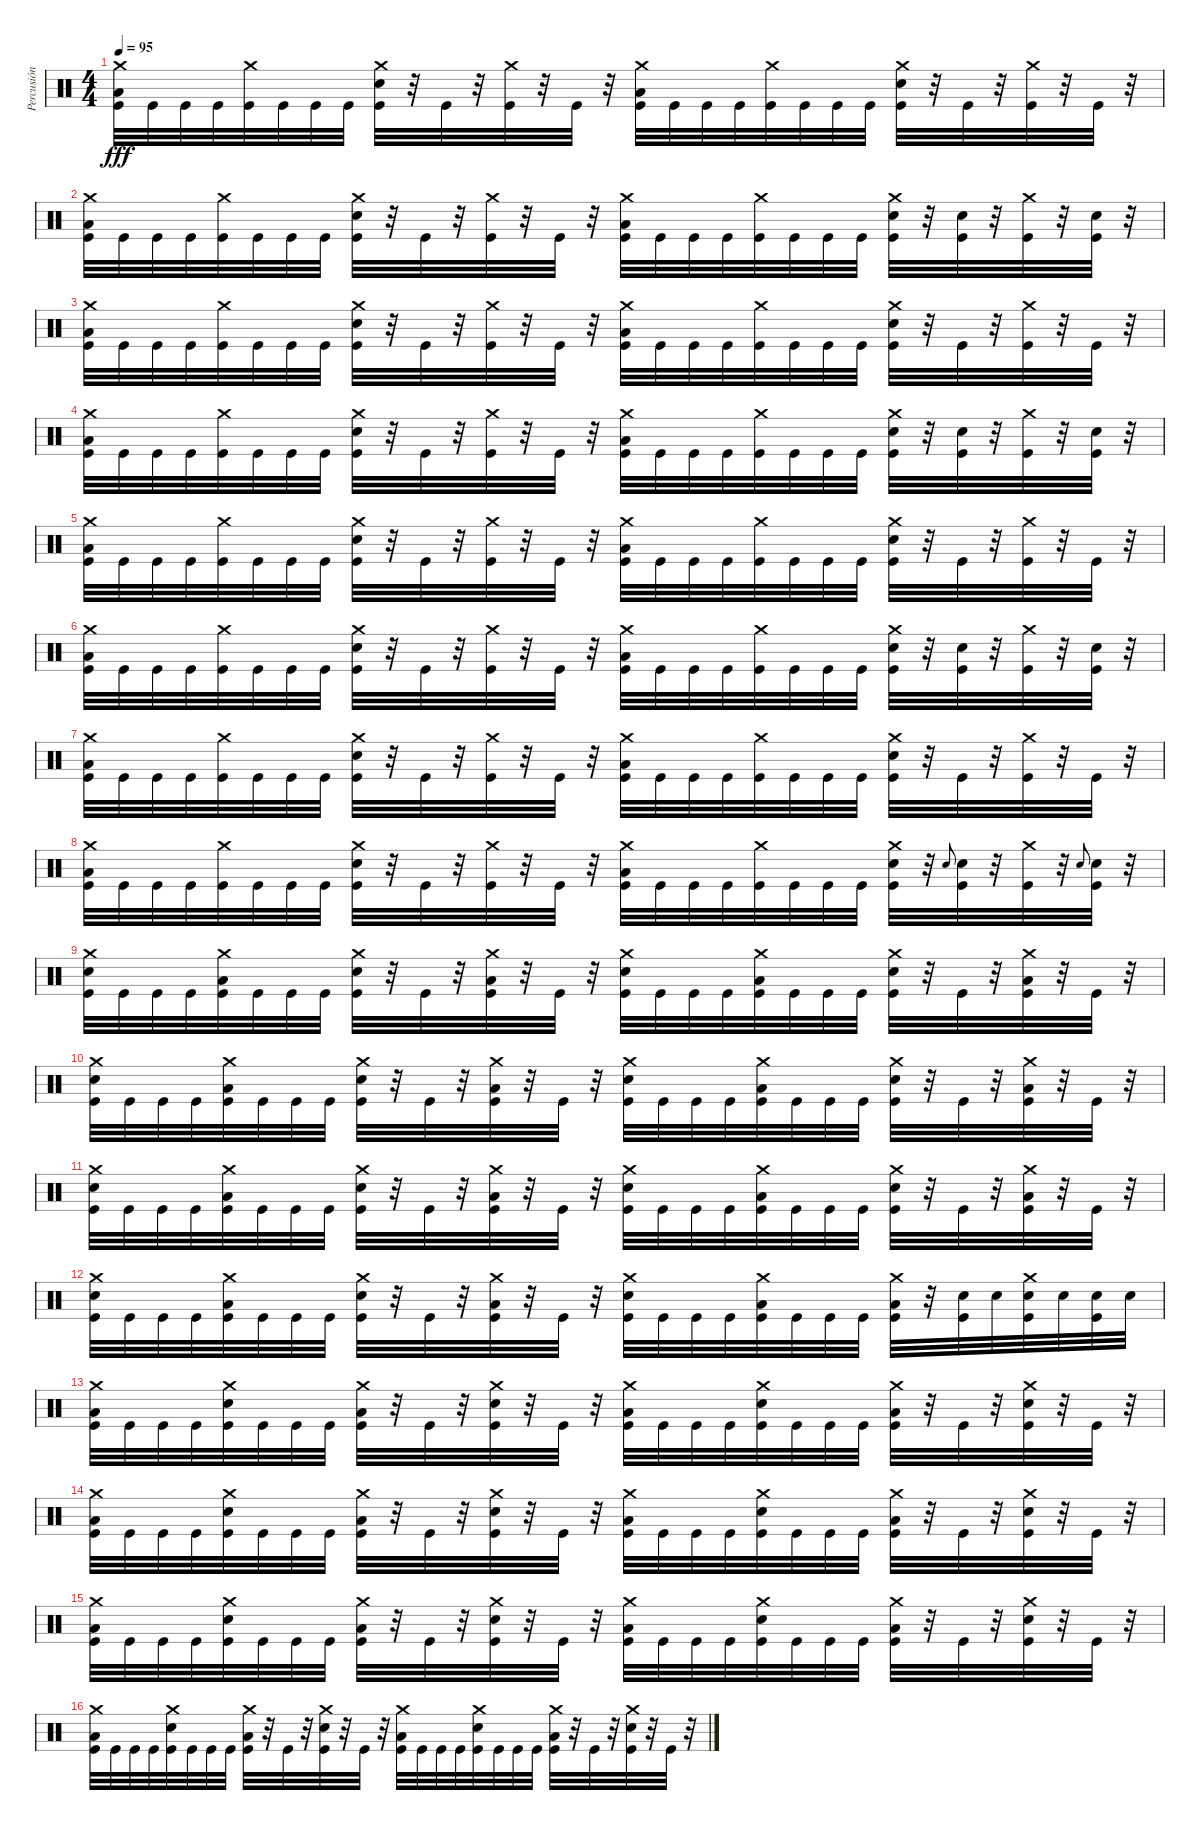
\track ("Percusión" "Percusión") {instrument percussion}
\staff {score}
\articulation defaults
\ts (4 4)
\tempo 95
\clef neutral
\ks c
("Crash medium (hit)" "Low Floor Tom (hit)" "Kick (hit)").32{dy fff} "Kick (hit)".32 "Kick (hit)".32 "Kick (hit)".32 ("Crash medium (hit)" "Kick (hit)").32 "Kick (hit)".32 "Kick (hit)".32 "Kick (hit)".32 ("Crash medium (hit)" "Snare (hit) 2" "Kick (hit)").32 r.32 "Kick (hit)".32 r.32 ("Crash medium (hit)" "Kick (hit)").32 r.32 "Kick (hit)".32 r.32 ("Crash medium (hit)" "Low Floor Tom (hit)" "Kick (hit)").32 "Kick (hit)".32 "Kick (hit)".32 "Kick (hit)".32 ("Crash medium (hit)" "Kick (hit)").32 "Kick (hit)".32 "Kick (hit)".32 "Kick (hit)".32 ("Crash medium (hit)" "Snare (hit) 2" "Kick (hit)").32 r.32 "Kick (hit)".32 r.32 ("Crash medium (hit)" "Kick (hit)").32 r.32 "Kick (hit)".32 r.32 |
("Crash medium (hit)" "Low Floor Tom (hit)" "Kick (hit)").32 "Kick (hit)".32 "Kick (hit)".32 "Kick (hit)".32 ("Crash medium (hit)" "Kick (hit)").32 "Kick (hit)".32 "Kick (hit)".32 "Kick (hit)".32 ("Crash medium (hit)" "Snare (hit) 2" "Kick (hit)").32 r.32 "Kick (hit)".32 r.32 ("Crash medium (hit)" "Kick (hit)").32 r.32 "Kick (hit)".32 r.32 ("Crash medium (hit)" "Low Floor Tom (hit)" "Kick (hit)").32 "Kick (hit)".32 "Kick (hit)".32 "Kick (hit)".32 ("Crash medium (hit)" "Kick (hit)").32 "Kick (hit)".32 "Kick (hit)".32 "Kick (hit)".32 ("Crash medium (hit)" "Snare (hit) 2" "Kick (hit)").32 r.32 ("Snare (hit) 2" "Kick (hit)").32 r.32 ("Crash medium (hit)" "Kick (hit)").32 r.32 ("Snare (hit) 2" "Kick (hit)").32 r.32 |
("Crash medium (hit)" "Low Floor Tom (hit)" "Kick (hit)").32 "Kick (hit)".32 "Kick (hit)".32 "Kick (hit)".32 ("Crash medium (hit)" "Kick (hit)").32 "Kick (hit)".32 "Kick (hit)".32 "Kick (hit)".32 ("Crash medium (hit)" "Snare (hit) 2" "Kick (hit)").32 r.32 "Kick (hit)".32 r.32 ("Crash medium (hit)" "Kick (hit)").32 r.32 "Kick (hit)".32 r.32 ("Crash medium (hit)" "Low Floor Tom (hit)" "Kick (hit)").32 "Kick (hit)".32 "Kick (hit)".32 "Kick (hit)".32 ("Crash medium (hit)" "Kick (hit)").32 "Kick (hit)".32 "Kick (hit)".32 "Kick (hit)".32 ("Crash medium (hit)" "Snare (hit) 2" "Kick (hit)").32 r.32 "Kick (hit)".32 r.32 ("Crash medium (hit)" "Kick (hit)").32 r.32 "Kick (hit)".32 r.32 |
("Crash medium (hit)" "Low Floor Tom (hit)" "Kick (hit)").32 "Kick (hit)".32 "Kick (hit)".32 "Kick (hit)".32 ("Crash medium (hit)" "Kick (hit)").32 "Kick (hit)".32 "Kick (hit)".32 "Kick (hit)".32 ("Crash medium (hit)" "Snare (hit) 2" "Kick (hit)").32 r.32 "Kick (hit)".32 r.32 ("Crash medium (hit)" "Kick (hit)").32 r.32 "Kick (hit)".32 r.32 ("Crash medium (hit)" "Low Floor Tom (hit)" "Kick (hit)").32 "Kick (hit)".32 "Kick (hit)".32 "Kick (hit)".32 ("Crash medium (hit)" "Kick (hit)").32 "Kick (hit)".32 "Kick (hit)".32 "Kick (hit)".32 ("Crash medium (hit)" "Snare (hit) 2" "Kick (hit)").32 r.32 ("Snare (hit) 2" "Kick (hit)").32 r.32 ("Crash medium (hit)" "Kick (hit)").32 r.32 ("Snare (hit) 2" "Kick (hit)").32 r.32 |
("Crash medium (hit)" "Low Floor Tom (hit)" "Kick (hit)").32 "Kick (hit)".32 "Kick (hit)".32 "Kick (hit)".32 ("Crash medium (hit)" "Kick (hit)").32 "Kick (hit)".32 "Kick (hit)".32 "Kick (hit)".32 ("Crash medium (hit)" "Snare (hit) 2" "Kick (hit)").32 r.32 "Kick (hit)".32 r.32 ("Crash medium (hit)" "Kick (hit)").32 r.32 "Kick (hit)".32 r.32 ("Crash medium (hit)" "Low Floor Tom (hit)" "Kick (hit)").32 "Kick (hit)".32 "Kick (hit)".32 "Kick (hit)".32 ("Crash medium (hit)" "Kick (hit)").32 "Kick (hit)".32 "Kick (hit)".32 "Kick (hit)".32 ("Crash medium (hit)" "Snare (hit) 2" "Kick (hit)").32 r.32 "Kick (hit)".32 r.32 ("Crash medium (hit)" "Kick (hit)").32 r.32 "Kick (hit)".32 r.32 |
("Crash medium (hit)" "Low Floor Tom (hit)" "Kick (hit)").32 "Kick (hit)".32 "Kick (hit)".32 "Kick (hit)".32 ("Crash medium (hit)" "Kick (hit)").32 "Kick (hit)".32 "Kick (hit)".32 "Kick (hit)".32 ("Crash medium (hit)" "Snare (hit) 2" "Kick (hit)").32 r.32 "Kick (hit)".32 r.32 ("Crash medium (hit)" "Kick (hit)").32 r.32 "Kick (hit)".32 r.32 ("Crash medium (hit)" "Low Floor Tom (hit)" "Kick (hit)").32 "Kick (hit)".32 "Kick (hit)".32 "Kick (hit)".32 ("Crash medium (hit)" "Kick (hit)").32 "Kick (hit)".32 "Kick (hit)".32 "Kick (hit)".32 ("Crash medium (hit)" "Snare (hit) 2" "Kick (hit)").32 r.32 ("Snare (hit) 2" "Kick (hit)").32 r.32 ("Crash medium (hit)" "Kick (hit)").32 r.32 ("Snare (hit) 2" "Kick (hit)").32 r.32 |
("Crash medium (hit)" "Low Floor Tom (hit)" "Kick (hit)").32 "Kick (hit)".32 "Kick (hit)".32 "Kick (hit)".32 ("Crash medium (hit)" "Kick (hit)").32 "Kick (hit)".32 "Kick (hit)".32 "Kick (hit)".32 ("Crash medium (hit)" "Snare (hit) 2" "Kick (hit)").32 r.32 "Kick (hit)".32 r.32 ("Crash medium (hit)" "Kick (hit)").32 r.32 "Kick (hit)".32 r.32 ("Crash medium (hit)" "Low Floor Tom (hit)" "Kick (hit)").32 "Kick (hit)".32 "Kick (hit)".32 "Kick (hit)".32 ("Crash medium (hit)" "Kick (hit)").32 "Kick (hit)".32 "Kick (hit)".32 "Kick (hit)".32 ("Crash medium (hit)" "Snare (hit) 2" "Kick (hit)").32 r.32 "Kick (hit)".32 r.32 ("Crash medium (hit)" "Kick (hit)").32 r.32 "Kick (hit)".32 r.32 |
("Crash medium (hit)" "Low Floor Tom (hit)" "Kick (hit)").32 "Kick (hit)".32 "Kick (hit)".32 "Kick (hit)".32 ("Crash medium (hit)" "Kick (hit)").32 "Kick (hit)".32 "Kick (hit)".32 "Kick (hit)".32 ("Crash medium (hit)" "Snare (hit) 2" "Kick (hit)").32 r.32 "Kick (hit)".32 r.32 ("Crash medium (hit)" "Kick (hit)").32 r.32 "Kick (hit)".32 r.32 ("Crash medium (hit)" "Low Floor Tom (hit)" "Kick (hit)").32 "Kick (hit)".32 "Kick (hit)".32 "Kick (hit)".32 ("Crash medium (hit)" "Kick (hit)").32 "Kick (hit)".32 "Kick (hit)".32 "Kick (hit)".32 ("Crash medium (hit)" "Snare (hit) 2" "Kick (hit)").32 r.32 "Snare (hit) 2".8{gr onbeat} ("Snare (hit) 2" "Kick (hit)").32 r.32 ("Crash medium (hit)" "Kick (hit)").32 r.32 "Snare (hit) 2".8{gr onbeat} ("Snare (hit) 2" "Kick (hit)").32 r.32 |
("Crash medium (hit)" "Snare (hit) 2" "Kick (hit)").32 "Kick (hit)".32 "Kick (hit)".32 "Kick (hit)".32 ("Crash medium (hit)" "Low Floor Tom (hit)" "Kick (hit)").32 "Kick (hit)".32 "Kick (hit)".32 "Kick (hit)".32 ("Crash medium (hit)" "Snare (hit) 2" "Kick (hit)").32 r.32 "Kick (hit)".32 r.32 ("Crash medium (hit)" "Low Floor Tom (hit)" "Kick (hit)").32 r.32 "Kick (hit)".32 r.32 ("Crash medium (hit)" "Snare (hit) 2" "Kick (hit)").32 "Kick (hit)".32 "Kick (hit)".32 "Kick (hit)".32 ("Crash medium (hit)" "Low Floor Tom (hit)" "Kick (hit)").32 "Kick (hit)".32 "Kick (hit)".32 "Kick (hit)".32 ("Crash medium (hit)" "Snare (hit) 2" "Kick (hit)").32 r.32 "Kick (hit)".32 r.32 ("Crash medium (hit)" "Low Floor Tom (hit)" "Kick (hit)").32 r.32 "Kick (hit)".32 r.32 |
("Crash medium (hit)" "Snare (hit) 2" "Kick (hit)").32 "Kick (hit)".32 "Kick (hit)".32 "Kick (hit)".32 ("Crash medium (hit)" "Low Floor Tom (hit)" "Kick (hit)").32 "Kick (hit)".32 "Kick (hit)".32 "Kick (hit)".32 ("Crash medium (hit)" "Snare (hit) 2" "Kick (hit)").32 r.32 "Kick (hit)".32 r.32 ("Crash medium (hit)" "Low Floor Tom (hit)" "Kick (hit)").32 r.32 "Kick (hit)".32 r.32 ("Crash medium (hit)" "Snare (hit) 2" "Kick (hit)").32 "Kick (hit)".32 "Kick (hit)".32 "Kick (hit)".32 ("Crash medium (hit)" "Low Floor Tom (hit)" "Kick (hit)").32 "Kick (hit)".32 "Kick (hit)".32 "Kick (hit)".32 ("Crash medium (hit)" "Snare (hit) 2" "Kick (hit)").32 r.32 "Kick (hit)".32 r.32 ("Crash medium (hit)" "Low Floor Tom (hit)" "Kick (hit)").32 r.32 "Kick (hit)".32 r.32 |
("Crash medium (hit)" "Snare (hit) 2" "Kick (hit)").32 "Kick (hit)".32 "Kick (hit)".32 "Kick (hit)".32 ("Crash medium (hit)" "Low Floor Tom (hit)" "Kick (hit)").32 "Kick (hit)".32 "Kick (hit)".32 "Kick (hit)".32 ("Crash medium (hit)" "Snare (hit) 2" "Kick (hit)").32 r.32 "Kick (hit)".32 r.32 ("Crash medium (hit)" "Low Floor Tom (hit)" "Kick (hit)").32 r.32 "Kick (hit)".32 r.32 ("Crash medium (hit)" "Snare (hit) 2" "Kick (hit)").32 "Kick (hit)".32 "Kick (hit)".32 "Kick (hit)".32 ("Crash medium (hit)" "Low Floor Tom (hit)" "Kick (hit)").32 "Kick (hit)".32 "Kick (hit)".32 "Kick (hit)".32 ("Crash medium (hit)" "Snare (hit) 2" "Kick (hit)").32 r.32 "Kick (hit)".32 r.32 ("Crash medium (hit)" "Low Floor Tom (hit)" "Kick (hit)").32 r.32 "Kick (hit)".32 r.32 |
("Crash medium (hit)" "Snare (hit) 2" "Kick (hit)").32 "Kick (hit)".32 "Kick (hit)".32 "Kick (hit)".32 ("Crash medium (hit)" "Low Floor Tom (hit)" "Kick (hit)").32 "Kick (hit)".32 "Kick (hit)".32 "Kick (hit)".32 ("Crash medium (hit)" "Snare (hit) 2" "Kick (hit)").32 r.32 "Kick (hit)".32 r.32 ("Crash medium (hit)" "Low Floor Tom (hit)" "Kick (hit)").32 r.32 "Kick (hit)".32 r.32 ("Crash medium (hit)" "Snare (hit) 2" "Kick (hit)").32 "Kick (hit)".32 "Kick (hit)".32 "Kick (hit)".32 ("Crash medium (hit)" "Low Floor Tom (hit)" "Kick (hit)").32 "Kick (hit)".32 "Kick (hit)".32 "Kick (hit)".32 ("Crash medium (hit)" "Low Floor Tom (hit)" "Kick (hit)").32 r.32 ("Snare (hit) 2" "Kick (hit)").32 "Snare (hit) 2".32 ("Crash medium (hit)" "Snare (hit) 2" "Kick (hit)").32 "Snare (hit) 2".32 ("Snare (hit) 2" "Kick (hit)").32 "Snare (hit) 2".32 |
("Crash medium (hit)" "Low Floor Tom (hit)" "Kick (hit)").32 "Kick (hit)".32 "Kick (hit)".32 "Kick (hit)".32 ("Crash medium (hit)" "Snare (hit) 2" "Kick (hit)").32 "Kick (hit)".32 "Kick (hit)".32 "Kick (hit)".32 ("Crash medium (hit)" "Low Floor Tom (hit)" "Kick (hit)").32 r.32 "Kick (hit)".32 r.32 ("Crash medium (hit)" "Snare (hit) 2" "Kick (hit)").32 r.32 "Kick (hit)".32 r.32 ("Crash medium (hit)" "Low Floor Tom (hit)" "Kick (hit)").32 "Kick (hit)".32 "Kick (hit)".32 "Kick (hit)".32 ("Crash medium (hit)" "Snare (hit) 2" "Kick (hit)").32 "Kick (hit)".32 "Kick (hit)".32 "Kick (hit)".32 ("Crash medium (hit)" "Low Floor Tom (hit)" "Kick (hit)").32 r.32 "Kick (hit)".32 r.32 ("Crash medium (hit)" "Snare (hit) 2" "Kick (hit)").32 r.32 "Kick (hit)".32 r.32 |
("Crash medium (hit)" "Low Floor Tom (hit)" "Kick (hit)").32 "Kick (hit)".32 "Kick (hit)".32 "Kick (hit)".32 ("Crash medium (hit)" "Snare (hit) 2" "Kick (hit)").32 "Kick (hit)".32 "Kick (hit)".32 "Kick (hit)".32 ("Crash medium (hit)" "Low Floor Tom (hit)" "Kick (hit)").32 r.32 "Kick (hit)".32 r.32 ("Crash medium (hit)" "Snare (hit) 2" "Kick (hit)").32 r.32 "Kick (hit)".32 r.32 ("Crash medium (hit)" "Low Floor Tom (hit)" "Kick (hit)").32 "Kick (hit)".32 "Kick (hit)".32 "Kick (hit)".32 ("Crash medium (hit)" "Snare (hit) 2" "Kick (hit)").32 "Kick (hit)".32 "Kick (hit)".32 "Kick (hit)".32 ("Crash medium (hit)" "Low Floor Tom (hit)" "Kick (hit)").32 r.32 "Kick (hit)".32 r.32 ("Crash medium (hit)" "Snare (hit) 2" "Kick (hit)").32 r.32 "Kick (hit)".32 r.32 |
("Crash medium (hit)" "Low Floor Tom (hit)" "Kick (hit)").32 "Kick (hit)".32 "Kick (hit)".32 "Kick (hit)".32 ("Crash medium (hit)" "Snare (hit) 2" "Kick (hit)").32 "Kick (hit)".32 "Kick (hit)".32 "Kick (hit)".32 ("Crash medium (hit)" "Low Floor Tom (hit)" "Kick (hit)").32 r.32 "Kick (hit)".32 r.32 ("Crash medium (hit)" "Snare (hit) 2" "Kick (hit)").32 r.32 "Kick (hit)".32 r.32 ("Crash medium (hit)" "Low Floor Tom (hit)" "Kick (hit)").32 "Kick (hit)".32 "Kick (hit)".32 "Kick (hit)".32 ("Crash medium (hit)" "Snare (hit) 2" "Kick (hit)").32 "Kick (hit)".32 "Kick (hit)".32 "Kick (hit)".32 ("Crash medium (hit)" "Low Floor Tom (hit)" "Kick (hit)").32 r.32 "Kick (hit)".32 r.32 ("Crash medium (hit)" "Snare (hit) 2" "Kick (hit)").32 r.32 "Kick (hit)".32 r.32 |
("Crash medium (hit)" "Low Floor Tom (hit)" "Kick (hit)").32 "Kick (hit)".32 "Kick (hit)".32 "Kick (hit)".32 ("Crash medium (hit)" "Snare (hit) 2" "Kick (hit)").32 "Kick (hit)".32 "Kick (hit)".32 "Kick (hit)".32 ("Crash medium (hit)" "Low Floor Tom (hit)" "Kick (hit)").32 r.32 "Kick (hit)".32 r.32 ("Crash medium (hit)" "Snare (hit) 2" "Kick (hit)").32 r.32 "Kick (hit)".32 r.32 ("Crash medium (hit)" "Low Floor Tom (hit)" "Kick (hit)").32 "Kick (hit)".32 "Kick (hit)".32 "Kick (hit)".32 ("Crash medium (hit)" "Snare (hit) 2" "Kick (hit)").32 "Kick (hit)".32 "Kick (hit)".32 "Kick (hit)".32 ("Crash medium (hit)" "Low Floor Tom (hit)" "Kick (hit)").32 r.32 "Kick (hit)".32 r.32 ("Crash medium (hit)" "Snare (hit) 2" "Kick (hit)").32 r.32 "Kick (hit)".32 r.32
